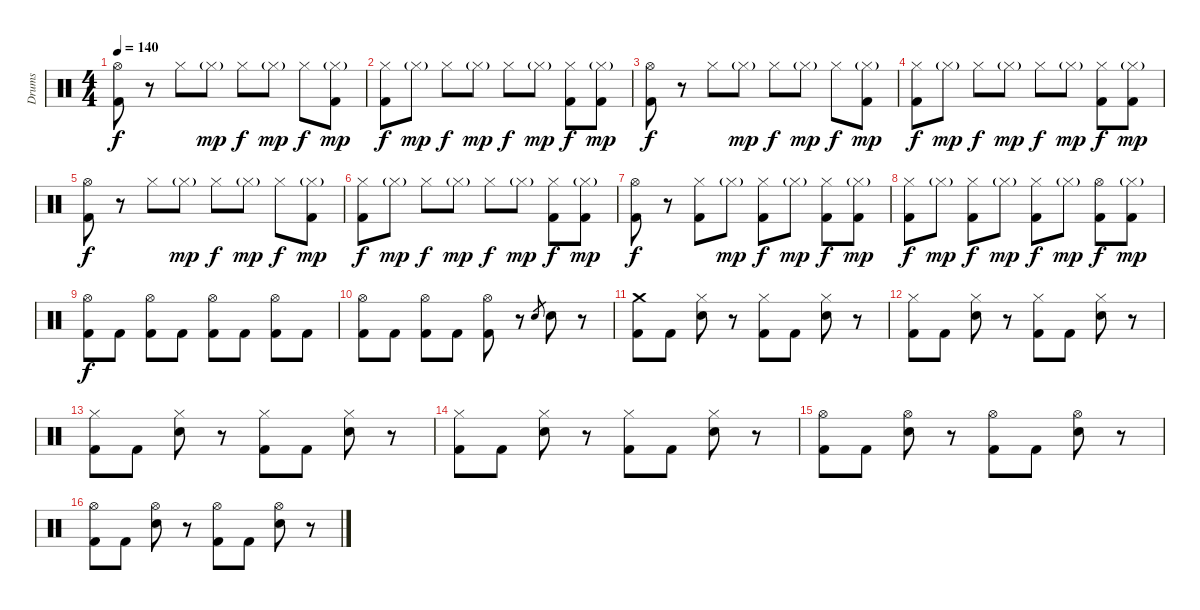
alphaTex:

\track ("Drums" "Drums") {instrument percussion}
\staff {score}
\articulation defaults
\ts (4 4)
\tempo 140
\clef neutral
\ks c
("Hi-Hat (open)" "Kick (hit) 2").8{dy f} r.8 "Hi-Hat (closed)".8 "Hi-Hat (closed)"{g}.8{dy mp} "Hi-Hat (closed)".8{dy f} "Hi-Hat (closed)"{g}.8{dy mp} "Hi-Hat (closed)".8{dy f} ("Hi-Hat (closed)"{g} "Kick (hit) 2").8{dy mp} |
("Hi-Hat (closed)" "Kick (hit) 2").8{dy f} "Hi-Hat (closed)"{g}.8{dy mp} "Hi-Hat (closed)".8{dy f} "Hi-Hat (closed)"{g}.8{dy mp} "Hi-Hat (closed)".8{dy f} "Hi-Hat (closed)"{g}.8{dy mp} ("Hi-Hat (closed)" "Kick (hit) 2").8{dy f} ("Hi-Hat (closed)"{g} "Kick (hit) 2").8{dy mp} |
("Hi-Hat (open)" "Kick (hit) 2").8{dy f} r.8 "Hi-Hat (closed)".8 "Hi-Hat (closed)"{g}.8{dy mp} "Hi-Hat (closed)".8{dy f} "Hi-Hat (closed)"{g}.8{dy mp} "Hi-Hat (closed)".8{dy f} ("Hi-Hat (closed)"{g} "Kick (hit) 2").8{dy mp} |
("Hi-Hat (closed)" "Kick (hit) 2").8{dy f} "Hi-Hat (closed)"{g}.8{dy mp} "Hi-Hat (closed)".8{dy f} "Hi-Hat (closed)"{g}.8{dy mp} "Hi-Hat (closed)".8{dy f} "Hi-Hat (closed)"{g}.8{dy mp} ("Hi-Hat (closed)" "Kick (hit) 2").8{dy f} ("Hi-Hat (closed)"{g} "Kick (hit) 2").8{dy mp} |
("Hi-Hat (open)" "Kick (hit) 2").8{dy f} r.8 "Hi-Hat (closed)".8 "Hi-Hat (closed)"{g}.8{dy mp} "Hi-Hat (closed)".8{dy f} "Hi-Hat (closed)"{g}.8{dy mp} "Hi-Hat (closed)".8{dy f} ("Hi-Hat (closed)"{g} "Kick (hit) 2").8{dy mp} |
("Hi-Hat (closed)" "Kick (hit) 2").8{dy f} "Hi-Hat (closed)"{g}.8{dy mp} "Hi-Hat (closed)".8{dy f} "Hi-Hat (closed)"{g}.8{dy mp} "Hi-Hat (closed)".8{dy f} "Hi-Hat (closed)"{g}.8{dy mp} ("Hi-Hat (closed)" "Kick (hit) 2").8{dy f} ("Hi-Hat (closed)"{g} "Kick (hit) 2").8{dy mp} |
("Hi-Hat (open)" "Kick (hit) 2").8{dy f} r.8 ("Hi-Hat (closed)" "Kick (hit) 2").8 "Hi-Hat (closed)"{g}.8{dy mp} ("Hi-Hat (closed)" "Kick (hit) 2").8{dy f} "Hi-Hat (closed)"{g}.8{dy mp} ("Hi-Hat (closed)" "Kick (hit) 2").8{dy f} ("Hi-Hat (closed)"{g} "Kick (hit) 2").8{dy mp} |
("Hi-Hat (closed)" "Kick (hit) 2").8{dy f} "Hi-Hat (closed)"{g}.8{dy mp} ("Hi-Hat (closed)" "Kick (hit) 2").8{dy f} "Hi-Hat (closed)"{g}.8{dy mp} ("Hi-Hat (closed)" "Kick (hit) 2").8{dy f} "Hi-Hat (closed)"{g}.8{dy mp} ("Hi-Hat (open)" "Kick (hit) 2").8{dy f} ("Hi-Hat (closed)"{g} "Kick (hit) 2").8{dy mp} |
("Hi-Hat (open)" "Kick (hit) 2").8{dy f} "Kick (hit) 2".8 ("Hi-Hat (open)" "Kick (hit) 2").8 "Kick (hit) 2".8 ("Hi-Hat (open)" "Kick (hit) 2").8 "Kick (hit) 2".8 ("Hi-Hat (open)" "Kick (hit) 2").8 "Kick (hit) 2".8 |
("Hi-Hat (open)" "Kick (hit) 2").8 "Kick (hit) 2".8 ("Hi-Hat (open)" "Kick (hit) 2").8 "Kick (hit) 2".8 ("Hi-Hat (open)" "Kick (hit) 2").8 r.8 "Electric Snare (hit)".8{gr} "Electric Snare (hit)".8 r.8 |
("Crash medium (hit)" "Kick (hit) 2").8 "Kick (hit) 2".8 ("Hi-Hat (closed)" "Electric Snare (hit)").8 r.8 ("Hi-Hat (closed)" "Kick (hit) 2").8 "Kick (hit) 2".8 ("Hi-Hat (closed)" "Electric Snare (hit)").8 r.8 |
("Hi-Hat (closed)" "Kick (hit) 2").8 "Kick (hit) 2".8 ("Hi-Hat (closed)" "Electric Snare (hit)").8 r.8 ("Hi-Hat (closed)" "Kick (hit) 2").8 "Kick (hit) 2".8 ("Hi-Hat (closed)" "Electric Snare (hit)").8 r.8 |
("Hi-Hat (closed)" "Kick (hit) 2").8 "Kick (hit) 2".8 ("Hi-Hat (closed)" "Electric Snare (hit)").8 r.8 ("Hi-Hat (closed)" "Kick (hit) 2").8 "Kick (hit) 2".8 ("Hi-Hat (closed)" "Electric Snare (hit)").8 r.8 |
("Hi-Hat (closed)" "Kick (hit) 2").8 "Kick (hit) 2".8 ("Hi-Hat (closed)" "Electric Snare (hit)").8 r.8 ("Hi-Hat (closed)" "Kick (hit) 2").8 "Kick (hit) 2".8 ("Hi-Hat (closed)" "Electric Snare (hit)").8 r.8 |
("Hi-Hat (open)" "Kick (hit) 2").8 "Kick (hit) 2".8 ("Hi-Hat (open)" "Electric Snare (hit)").8 r.8 ("Hi-Hat (open)" "Kick (hit) 2").8 "Kick (hit) 2".8 ("Hi-Hat (open)" "Electric Snare (hit)").8 r.8 |
("Hi-Hat (open)" "Kick (hit) 2").8 "Kick (hit) 2".8 ("Hi-Hat (open)" "Electric Snare (hit)").8 r.8 ("Hi-Hat (open)" "Kick (hit) 2").8 "Kick (hit) 2".8 ("Hi-Hat (open)" "Electric Snare (hit)").8 r.8
